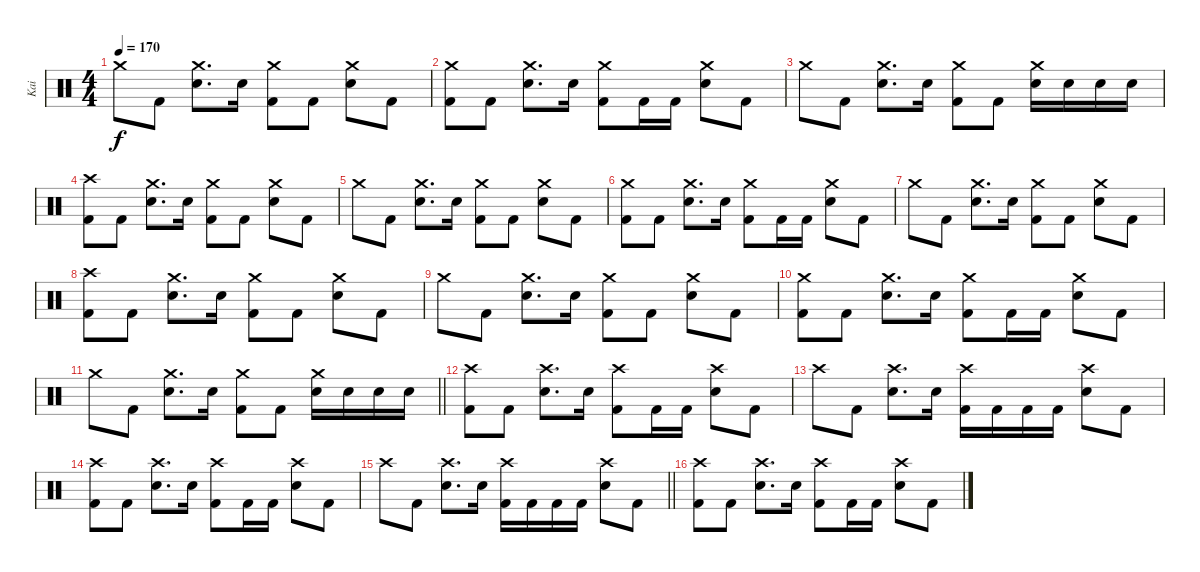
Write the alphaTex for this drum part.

\track ("Kai" "Kai") {instrument percussion}
\staff {score}
\articulation defaults
\ts (4 4)
\tempo 170
\clef neutral
\ks c "Crash medium (hit)".8{dy f} "Kick (hit) 2".8
("Crash medium (hit)" "Electric Snare (hit)").8{d} "Electric Snare (hit)".16 ("Crash medium (hit)" "Kick (hit) 2").8 "Kick (hit) 2".8 ("Crash medium (hit)" "Electric Snare (hit)").8 "Kick (hit) 2".8 |
("Crash medium (hit)" "Kick (hit) 2").8 "Kick (hit) 2".8 ("Crash medium (hit)" "Electric Snare (hit)").8{d} "Electric Snare (hit)".16 ("Crash medium (hit)" "Kick (hit) 2").8 "Kick (hit) 2".16 "Kick (hit) 2".16 ("Crash medium (hit)" "Electric Snare (hit)").8 "Kick (hit) 2".8 |
"Crash medium (hit)".8 "Kick (hit) 2".8 ("Crash medium (hit)" "Electric Snare (hit)").8{d} "Electric Snare (hit)".16 ("Crash medium (hit)" "Kick (hit) 2").8 "Kick (hit) 2".8 ("Crash medium (hit)" "Electric Snare (hit)").16 "Electric Snare (hit)".16 "Electric Snare (hit)".16 "Electric Snare (hit)".16 |
("Crash high (hit)" "Kick (hit) 2").8 "Kick (hit) 2".8 ("Crash medium (hit)" "Electric Snare (hit)").8{d} "Electric Snare (hit)".16 ("Crash medium (hit)" "Kick (hit) 2").8 "Kick (hit) 2".8 ("Crash medium (hit)" "Electric Snare (hit)").8 "Kick (hit) 2".8 |
"Crash medium (hit)".8 "Kick (hit) 2".8 ("Crash medium (hit)" "Electric Snare (hit)").8{d} "Electric Snare (hit)".16 ("Crash medium (hit)" "Kick (hit) 2").8 "Kick (hit) 2".8 ("Crash medium (hit)" "Electric Snare (hit)").8 "Kick (hit) 2".8 |
("Crash medium (hit)" "Kick (hit) 2").8 "Kick (hit) 2".8 ("Crash medium (hit)" "Electric Snare (hit)").8{d} "Electric Snare (hit)".16 ("Crash medium (hit)" "Kick (hit) 2").8 "Kick (hit) 2".16 "Kick (hit) 2".16 ("Crash medium (hit)" "Electric Snare (hit)").8 "Kick (hit) 2".8 |
"Crash medium (hit)".8 "Kick (hit) 2".8 ("Crash medium (hit)" "Electric Snare (hit)").8{d} "Electric Snare (hit)".16 ("Crash medium (hit)" "Kick (hit) 2").8 "Kick (hit) 2".8 ("Crash medium (hit)" "Electric Snare (hit)").8 "Kick (hit) 2".8 |
("Crash high (hit)" "Kick (hit) 2").8 "Kick (hit) 2".8 ("Crash medium (hit)" "Electric Snare (hit)").8{d} "Electric Snare (hit)".16 ("Crash medium (hit)" "Kick (hit) 2").8 "Kick (hit) 2".8 ("Crash medium (hit)" "Electric Snare (hit)").8 "Kick (hit) 2".8 |
"Crash medium (hit)".8 "Kick (hit) 2".8 ("Crash medium (hit)" "Electric Snare (hit)").8{d} "Electric Snare (hit)".16 ("Crash medium (hit)" "Kick (hit) 2").8 "Kick (hit) 2".8 ("Crash medium (hit)" "Electric Snare (hit)").8 "Kick (hit) 2".8 |
("Crash medium (hit)" "Kick (hit) 2").8 "Kick (hit) 2".8 ("Crash medium (hit)" "Electric Snare (hit)").8{d} "Electric Snare (hit)".16 ("Crash medium (hit)" "Kick (hit) 2").8 "Kick (hit) 2".16 "Kick (hit) 2".16 ("Crash medium (hit)" "Electric Snare (hit)").8 "Kick (hit) 2".8 |
\barLineRight lightlight "Crash medium (hit)".8 "Kick (hit) 2".8
("Crash medium (hit)" "Electric Snare (hit)").8{d} "Electric Snare (hit)".16 ("Crash medium (hit)" "Kick (hit) 2").8 "Kick (hit) 2".8 ("Crash medium (hit)" "Electric Snare (hit)").16 "Electric Snare (hit)".16 "Electric Snare (hit)".16 "Electric Snare (hit)".16 |
\section ("" "")
("Crash high (hit)" "Kick (hit) 2").8 "Kick (hit) 2".8 ("Crash high (hit)" "Electric Snare (hit)").8{d} "Electric Snare (hit)".16 ("Crash high (hit)" "Kick (hit) 2").8 "Kick (hit) 2".16 "Kick (hit) 2".16 ("Crash high (hit)" "Electric Snare (hit)").8 "Kick (hit) 2".8 |
"Crash high (hit)".8 "Kick (hit) 2".8 ("Crash high (hit)" "Electric Snare (hit)").8{d} "Electric Snare (hit)".16 ("Crash high (hit)" "Kick (hit) 2").16 "Kick (hit) 2".16 "Kick (hit) 2".16 "Kick (hit) 2".16 ("Crash high (hit)" "Electric Snare (hit)").8 "Kick (hit) 2".8 |
("Crash high (hit)" "Kick (hit) 2").8 "Kick (hit) 2".8 ("Crash high (hit)" "Electric Snare (hit)").8{d} "Electric Snare (hit)".16 ("Crash high (hit)" "Kick (hit) 2").8 "Kick (hit) 2".16 "Kick (hit) 2".16 ("Crash high (hit)" "Electric Snare (hit)").8 "Kick (hit) 2".8 |
\barLineRight lightlight "Crash high (hit)".8 "Kick (hit) 2".8
("Crash high (hit)" "Electric Snare (hit)").8{d} "Electric Snare (hit)".16 ("Crash high (hit)" "Kick (hit) 2").16 "Kick (hit) 2".16 "Kick (hit) 2".16 "Kick (hit) 2".16 ("Crash high (hit)" "Electric Snare (hit)").8 "Kick (hit) 2".8 |
("Crash high (hit)" "Kick (hit) 2").8 "Kick (hit) 2".8 ("Crash high (hit)" "Electric Snare (hit)").8{d} "Electric Snare (hit)".16 ("Crash high (hit)" "Kick (hit) 2").8 "Kick (hit) 2".16 "Kick (hit) 2".16 ("Crash high (hit)" "Electric Snare (hit)").8 "Kick (hit) 2".8
